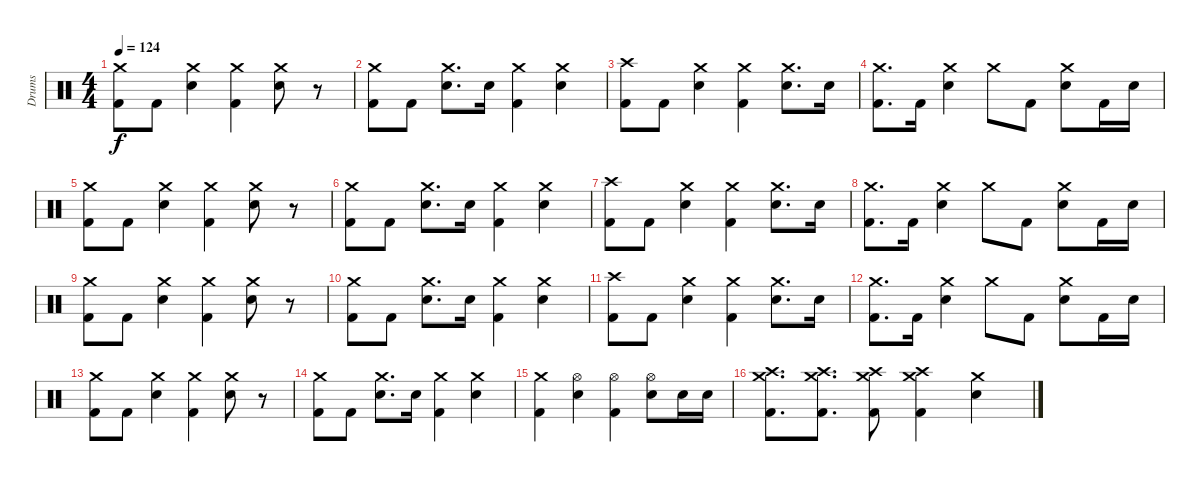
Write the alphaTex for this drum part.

\track ("Drums" "Drums") {instrument percussion}
\staff
\articulation defaults
\ts (4 4)
\tempo 124
\clef neutral
\ks c
("Crash medium (hit)" "Kick (hit) 2").8{dy f} "Kick (hit) 2".8 ("Crash medium (hit)" "Electric Snare (hit)").4 ("Crash medium (hit)" "Kick (hit) 2").4 ("Crash medium (hit)" "Electric Snare (hit)").8 r.8 |
("Crash medium (hit)" "Kick (hit) 2").8 "Kick (hit) 2".8 ("Crash medium (hit)" "Electric Snare (hit)").8{d} "Electric Snare (hit)".16 ("Crash medium (hit)" "Kick (hit) 2").4 ("Crash medium (hit)" "Electric Snare (hit)").4 |
("Crash high (hit)" "Kick (hit) 2").8 "Kick (hit) 2".8 ("Crash medium (hit)" "Electric Snare (hit)").4 ("Crash medium (hit)" "Kick (hit) 2").4 ("Crash medium (hit)" "Electric Snare (hit)").8{d} "Electric Snare (hit)".16 |
("Crash medium (hit)" "Kick (hit) 2").8{d} "Kick (hit) 2".16 ("Crash medium (hit)" "Electric Snare (hit)").4 "Crash medium (hit)".8 "Kick (hit) 2".8 ("Crash medium (hit)" "Electric Snare (hit)").8 "Kick (hit) 2".16 "Electric Snare (hit)".16 |
("Crash medium (hit)" "Kick (hit) 2").8 "Kick (hit) 2".8 ("Crash medium (hit)" "Electric Snare (hit)").4 ("Crash medium (hit)" "Kick (hit) 2").4 ("Crash medium (hit)" "Electric Snare (hit)").8 r.8 |
("Crash medium (hit)" "Kick (hit) 2").8 "Kick (hit) 2".8 ("Crash medium (hit)" "Electric Snare (hit)").8{d} "Electric Snare (hit)".16 ("Crash medium (hit)" "Kick (hit) 2").4 ("Crash medium (hit)" "Electric Snare (hit)").4 |
("Crash high (hit)" "Kick (hit) 2").8 "Kick (hit) 2".8 ("Crash medium (hit)" "Electric Snare (hit)").4 ("Crash medium (hit)" "Kick (hit) 2").4 ("Crash medium (hit)" "Electric Snare (hit)").8{d} "Electric Snare (hit)".16 |
("Crash medium (hit)" "Kick (hit) 2").8{d} "Kick (hit) 2".16 ("Crash medium (hit)" "Electric Snare (hit)").4 "Crash medium (hit)".8 "Kick (hit) 2".8 ("Crash medium (hit)" "Electric Snare (hit)").8 "Kick (hit) 2".16 "Electric Snare (hit)".16 |
("Crash medium (hit)" "Kick (hit) 2").8 "Kick (hit) 2".8 ("Crash medium (hit)" "Electric Snare (hit)").4 ("Crash medium (hit)" "Kick (hit) 2").4 ("Crash medium (hit)" "Electric Snare (hit)").8 r.8 |
("Crash medium (hit)" "Kick (hit) 2").8 "Kick (hit) 2".8 ("Crash medium (hit)" "Electric Snare (hit)").8{d} "Electric Snare (hit)".16 ("Crash medium (hit)" "Kick (hit) 2").4 ("Crash medium (hit)" "Electric Snare (hit)").4 |
("Crash high (hit)" "Kick (hit) 2").8 "Kick (hit) 2".8 ("Crash medium (hit)" "Electric Snare (hit)").4 ("Crash medium (hit)" "Kick (hit) 2").4 ("Crash medium (hit)" "Electric Snare (hit)").8{d} "Electric Snare (hit)".16 |
("Crash medium (hit)" "Kick (hit) 2").8{d} "Kick (hit) 2".16 ("Crash medium (hit)" "Electric Snare (hit)").4 "Crash medium (hit)".8 "Kick (hit) 2".8 ("Crash medium (hit)" "Electric Snare (hit)").8 "Kick (hit) 2".16 "Electric Snare (hit)".16 |
("Crash medium (hit)" "Kick (hit) 2").8 "Kick (hit) 2".8 ("Crash medium (hit)" "Electric Snare (hit)").4 ("Crash medium (hit)" "Kick (hit) 2").4 ("Crash medium (hit)" "Electric Snare (hit)").8 r.8 |
("Crash medium (hit)" "Kick (hit) 2").8 "Kick (hit) 2".8 ("Crash medium (hit)" "Electric Snare (hit)").8{d} "Electric Snare (hit)".16 ("Crash medium (hit)" "Kick (hit) 2").4 ("Crash medium (hit)" "Electric Snare (hit)").4 |
("Crash medium (hit)" "Kick (hit) 2").4 ("Hi-Hat (open)" "Electric Snare (hit)").4 ("Hi-Hat (open)" "Kick (hit) 2").4 ("Hi-Hat (open)" "Electric Snare (hit)").8 "Electric Snare (hit)".16 "Electric Snare (hit)".16 |
("Crash medium (hit)" "Crash high (hit)" "Kick (hit) 2").8{d} ("Crash medium (hit)" "Crash high (hit)" "Kick (hit) 2").8{d} ("Crash medium (hit)" "Crash high (hit)" "Kick (hit) 2").8 ("Crash medium (hit)" "Crash high (hit)" "Kick (hit) 2").4 ("Crash medium (hit)" "Electric Snare (hit)").4
